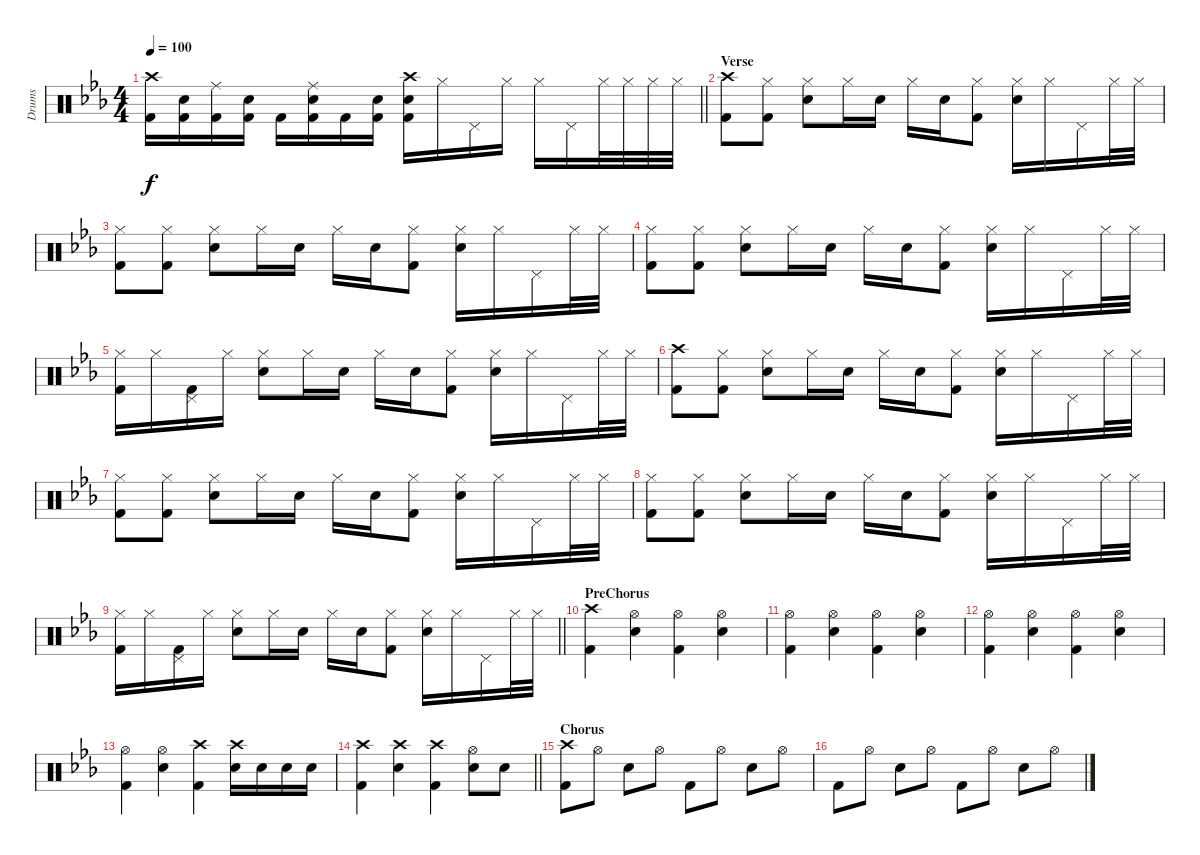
\track ("Drums" "Drums") {instrument percussion}
\staff {score}
\articulation defaults
\ts (4 4)
\tempo 100
\clef neutral
\barLineRight lightlight
\ks eb
("Kick (hit) 2" "Crash high (hit)").16{dy f} ("Kick (hit) 2" "Snare (hit) 2").16 ("Kick (hit) 2" "Ride (middle)").16 ("Snare (hit) 2" "Kick (hit) 2").16 "Kick (hit) 2".16 ("Kick (hit) 2" "Snare (hit) 2" "Ride (middle)").16 "Kick (hit) 2".16 ("Kick (hit) 2" "Snare (hit) 2").16 ("Kick (hit) 2" "Snare (hit) 2" "Crash high (hit)").16 "Hi-Hat (closed)".16 "Pedal Hi-Hat (hit)".16 "Hi-Hat (closed)".16 "Hi-Hat (closed)".16 "Pedal Hi-Hat (hit)".16 "Hi-Hat (closed)".32 "Hi-Hat (closed)".32 "Hi-Hat (closed)".32 "Hi-Hat (closed)".32 |
\section ("" "Verse")
("Kick (hit) 2" "Crash high (hit)").8 ("Kick (hit) 2" "Hi-Hat (closed)").8 ("Snare (hit) 2" "Hi-Hat (closed)").8 "Hi-Hat (closed)".16 "Snare (hit) 2".16 "Hi-Hat (closed)".16 "Snare (hit) 2".16 ("Kick (hit) 2" "Hi-Hat (closed)").8 ("Hi-Hat (closed)" "Snare (hit) 2").16 "Hi-Hat (closed)".16 "Pedal Hi-Hat (hit)".16 "Hi-Hat (closed)".32 "Hi-Hat (closed)".32 |
("Kick (hit) 2" "Hi-Hat (closed)").8 ("Kick (hit) 2" "Hi-Hat (closed)").8 ("Snare (hit) 2" "Hi-Hat (closed)").8 "Hi-Hat (closed)".16 "Snare (hit) 2".16 "Hi-Hat (closed)".16 "Snare (hit) 2".16 ("Kick (hit) 2" "Hi-Hat (closed)").8 ("Hi-Hat (closed)" "Snare (hit) 2").16 "Hi-Hat (closed)".16 "Pedal Hi-Hat (hit)".16 "Hi-Hat (closed)".32 "Hi-Hat (closed)".32 |
("Kick (hit) 2" "Hi-Hat (closed)").8 ("Kick (hit) 2" "Hi-Hat (closed)").8 ("Snare (hit) 2" "Hi-Hat (closed)").8 "Hi-Hat (closed)".16 "Snare (hit) 2".16 "Hi-Hat (closed)".16 "Snare (hit) 2".16 ("Kick (hit) 2" "Hi-Hat (closed)").8 ("Hi-Hat (closed)" "Snare (hit) 2").16 "Hi-Hat (closed)".16 "Pedal Hi-Hat (hit)".16 "Hi-Hat (closed)".32 "Hi-Hat (closed)".32 |
("Kick (hit) 2" "Hi-Hat (closed)").16 "Hi-Hat (closed)".16 ("Kick (hit) 2" "Pedal Hi-Hat (hit)").16 "Hi-Hat (closed)".16 ("Snare (hit) 2" "Hi-Hat (closed)").8 "Hi-Hat (closed)".16 "Snare (hit) 2".16 "Hi-Hat (closed)".16 "Snare (hit) 2".16 ("Kick (hit) 2" "Hi-Hat (closed)").8 ("Hi-Hat (closed)" "Snare (hit) 2").16 "Hi-Hat (closed)".16 "Pedal Hi-Hat (hit)".16 "Hi-Hat (closed)".32 "Hi-Hat (closed)".32 |
("Kick (hit) 2" "Crash high (hit)").8 ("Kick (hit) 2" "Hi-Hat (closed)").8 ("Snare (hit) 2" "Hi-Hat (closed)").8 "Hi-Hat (closed)".16 "Snare (hit) 2".16 "Hi-Hat (closed)".16 "Snare (hit) 2".16 ("Kick (hit) 2" "Hi-Hat (closed)").8 ("Hi-Hat (closed)" "Snare (hit) 2").16 "Hi-Hat (closed)".16 "Pedal Hi-Hat (hit)".16 "Hi-Hat (closed)".32 "Hi-Hat (closed)".32 |
("Kick (hit) 2" "Hi-Hat (closed)").8 ("Kick (hit) 2" "Hi-Hat (closed)").8 ("Snare (hit) 2" "Hi-Hat (closed)").8 "Hi-Hat (closed)".16 "Snare (hit) 2".16 "Hi-Hat (closed)".16 "Snare (hit) 2".16 ("Kick (hit) 2" "Hi-Hat (closed)").8 ("Hi-Hat (closed)" "Snare (hit) 2").16 "Hi-Hat (closed)".16 "Pedal Hi-Hat (hit)".16 "Hi-Hat (closed)".32 "Hi-Hat (closed)".32 |
("Kick (hit) 2" "Hi-Hat (closed)").8 ("Kick (hit) 2" "Hi-Hat (closed)").8 ("Snare (hit) 2" "Hi-Hat (closed)").8 "Hi-Hat (closed)".16 "Snare (hit) 2".16 "Hi-Hat (closed)".16 "Snare (hit) 2".16 ("Kick (hit) 2" "Hi-Hat (closed)").8 ("Hi-Hat (closed)" "Snare (hit) 2").16 "Hi-Hat (closed)".16 "Pedal Hi-Hat (hit)".16 "Hi-Hat (closed)".32 "Hi-Hat (closed)".32 |
\barLineRight lightlight
("Kick (hit) 2" "Hi-Hat (closed)").16 "Hi-Hat (closed)".16 ("Kick (hit) 2" "Pedal Hi-Hat (hit)").16 "Hi-Hat (closed)".16 ("Snare (hit) 2" "Hi-Hat (closed)").8 "Hi-Hat (closed)".16 "Snare (hit) 2".16 "Hi-Hat (closed)".16 "Snare (hit) 2".16 ("Kick (hit) 2" "Hi-Hat (closed)").8 ("Hi-Hat (closed)" "Snare (hit) 2").16 "Hi-Hat (closed)".16 "Pedal Hi-Hat (hit)".16 "Hi-Hat (closed)".32 "Hi-Hat (closed)".32 |
\section ("" "PreChorus")
("Kick (hit) 2" "Crash high (hit)").4 ("Snare (hit) 2" "Hi-Hat (open)").4 ("Kick (hit) 2" "Hi-Hat (open)").4 ("Snare (hit) 2" "Hi-Hat (open)").4 |
("Kick (hit) 2" "Hi-Hat (open)").4 ("Snare (hit) 2" "Hi-Hat (open)").4 ("Kick (hit) 2" "Hi-Hat (open)").4 ("Snare (hit) 2" "Hi-Hat (open)").4 |
("Kick (hit) 2" "Hi-Hat (open)").4 ("Snare (hit) 2" "Hi-Hat (open)").4 ("Kick (hit) 2" "Hi-Hat (open)").4 ("Snare (hit) 2" "Hi-Hat (open)").4 |
("Kick (hit) 2" "Hi-Hat (open)").4 ("Snare (hit) 2" "Hi-Hat (open)").4 ("Kick (hit) 2" "Crash high (hit)").4 ("Snare (hit) 2" "Crash high (hit)").16 "Snare (hit) 2".16 "Snare (hit) 2".16 "Snare (hit) 2".16 |
\barLineRight lightlight
("Kick (hit) 2" "Crash high (hit)").4 ("Snare (hit) 2" "Crash high (hit)").4 ("Kick (hit) 2" "Crash high (hit)").4 ("Snare (hit) 2" "Hi-Hat (open)").8 "Snare (hit) 2".8 |
\section ("" "Chorus")
("Kick (hit) 2" "Crash high (hit)").8 "Hi-Hat (open)".8 "Snare (hit) 2".8 "Hi-Hat (open)".8 "Kick (hit) 2".8 "Hi-Hat (open)".8 "Snare (hit) 2".8 "Hi-Hat (open)".8 |
"Kick (hit) 2".8 "Hi-Hat (open)".8 "Snare (hit) 2".8 "Hi-Hat (open)".8 "Kick (hit) 2".8 "Hi-Hat (open)".8 "Snare (hit) 2".8 "Hi-Hat (open)".8
